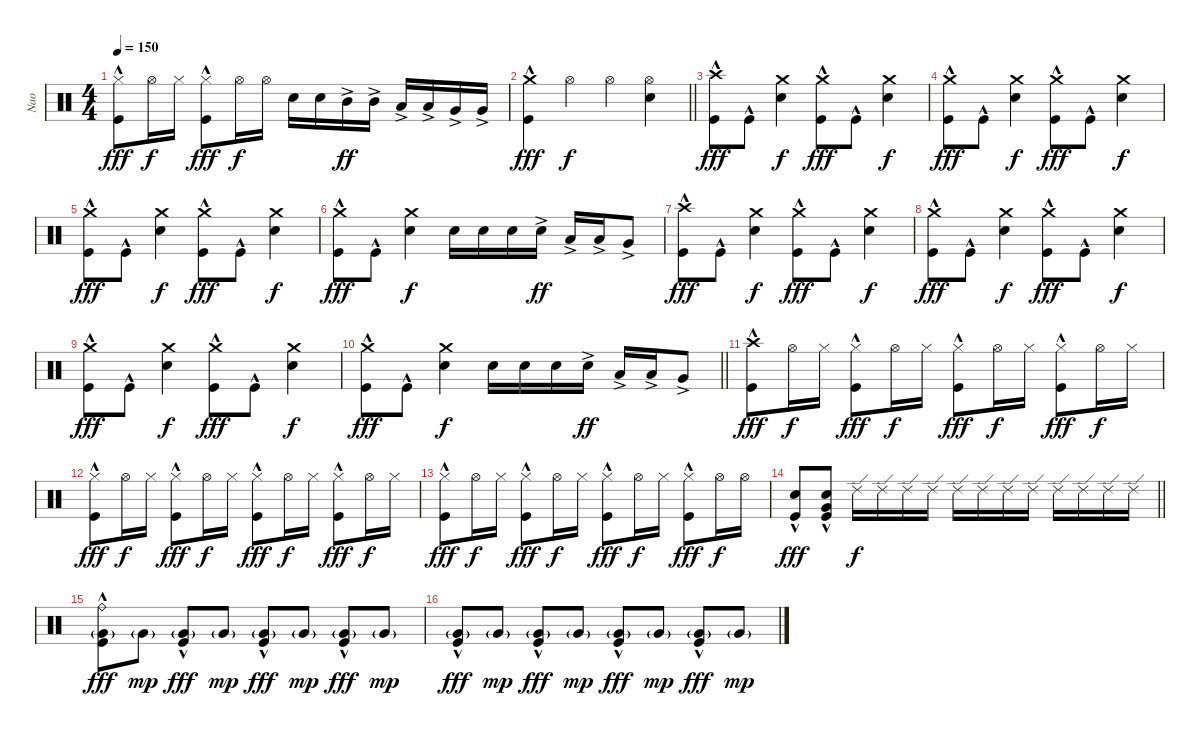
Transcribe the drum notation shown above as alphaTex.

\track ("Nao" "Nao") {instrument percussion}
\staff {score}
\articulation defaults
\ts (4 4)
\tempo 150
\clef neutral
\ks c
("Hi-Hat (closed)" "Kick (hit)"{hac}).8{dy fff} "Hi-Hat (open)".16{dy f} "Hi-Hat (closed)".16 ("Hi-Hat (closed)" "Kick (hit)"{hac}).8{dy fff} "Hi-Hat (open)".16{dy f} "Hi-Hat (open)".16 "Electric Snare (hit)".16 "Electric Snare (hit)".16 "Mid Tom (hit)"{ac}.16{dy ff} "Mid Tom (hit)"{ac}.16 "Low Tom (hit)"{ac}.16 "Low Tom (hit)"{ac}.16 "Very Low Tom (hit)"{ac}.16 "Very Low Tom (hit)"{ac}.16 |
\barLineRight lightlight
("Crash medium (hit)" "Kick (hit)"{hac}).4{dy fff} "Hi-Hat (open)".4{dy f} "Hi-Hat (open)".4 ("Hi-Hat (open)" "Electric Snare (hit)").4 |
\section ("" "")
("Crash high (hit)" "Kick (hit)"{hac}).8{dy fff} "Kick (hit)"{hac}.8 ("Crash medium (hit)" "Electric Snare (hit)").4{dy f} ("Crash medium (hit)" "Kick (hit)"{hac}).8{dy fff} "Kick (hit)"{hac}.8 ("Crash medium (hit)" "Electric Snare (hit)").4{dy f} |
("Crash medium (hit)" "Kick (hit)"{hac}).8{dy fff} "Kick (hit)"{hac}.8 ("Crash medium (hit)" "Electric Snare (hit)").4{dy f} ("Crash medium (hit)" "Kick (hit)"{hac}).8{dy fff} "Kick (hit)"{hac}.8 ("Crash medium (hit)" "Electric Snare (hit)").4{dy f} |
("Crash medium (hit)" "Kick (hit)"{hac}).8{dy fff} "Kick (hit)"{hac}.8 ("Crash medium (hit)" "Electric Snare (hit)").4{dy f} ("Crash medium (hit)" "Kick (hit)"{hac}).8{dy fff} "Kick (hit)"{hac}.8 ("Crash medium (hit)" "Electric Snare (hit)").4{dy f} |
("Crash medium (hit)" "Kick (hit)"{hac}).8{dy fff} "Kick (hit)"{hac}.8 ("Crash medium (hit)" "Electric Snare (hit)").4{dy f} "Electric Snare (hit)".16 "Electric Snare (hit)".16 "Electric Snare (hit)".16 "Electric Snare (hit)"{ac}.16{dy ff} "Low Tom (hit)"{ac}.16 "Low Tom (hit)"{ac}.16 "Very Low Tom (hit)"{ac}.8 |
("Crash high (hit)" "Kick (hit)"{hac}).8{dy fff} "Kick (hit)"{hac}.8 ("Crash medium (hit)" "Electric Snare (hit)").4{dy f} ("Crash medium (hit)" "Kick (hit)"{hac}).8{dy fff} "Kick (hit)"{hac}.8 ("Crash medium (hit)" "Electric Snare (hit)").4{dy f} |
("Crash medium (hit)" "Kick (hit)"{hac}).8{dy fff} "Kick (hit)"{hac}.8 ("Crash medium (hit)" "Electric Snare (hit)").4{dy f} ("Crash medium (hit)" "Kick (hit)"{hac}).8{dy fff} "Kick (hit)"{hac}.8 ("Crash medium (hit)" "Electric Snare (hit)").4{dy f} |
("Crash medium (hit)" "Kick (hit)"{hac}).8{dy fff} "Kick (hit)"{hac}.8 ("Crash medium (hit)" "Electric Snare (hit)").4{dy f} ("Crash medium (hit)" "Kick (hit)"{hac}).8{dy fff} "Kick (hit)"{hac}.8 ("Crash medium (hit)" "Electric Snare (hit)").4{dy f} |
\barLineRight lightlight
("Crash medium (hit)" "Kick (hit)"{hac}).8{dy fff} "Kick (hit)"{hac}.8 ("Crash medium (hit)" "Electric Snare (hit)").4{dy f} "Electric Snare (hit)".16 "Electric Snare (hit)".16 "Electric Snare (hit)".16 "Electric Snare (hit)"{ac}.16{dy ff} "Low Tom (hit)"{ac}.16 "Low Tom (hit)"{ac}.16 "Very Low Tom (hit)"{ac}.8 |
\section ("" "")
("Crash high (hit)" "Kick (hit)"{hac}).8{dy fff} "Hi-Hat (open)".16{dy f} "Hi-Hat (closed)".16 ("Hi-Hat (closed)" "Kick (hit)"{hac}).8{dy fff} "Hi-Hat (open)".16{dy f} "Hi-Hat (closed)".16 ("Hi-Hat (closed)" "Kick (hit)"{hac}).8{dy fff} "Hi-Hat (open)".16{dy f} "Hi-Hat (closed)".16 ("Hi-Hat (closed)" "Kick (hit)"{hac}).8{dy fff} "Hi-Hat (open)".16{dy f} "Hi-Hat (closed)".16 |
("Hi-Hat (closed)" "Kick (hit)"{hac}).8{dy fff} "Hi-Hat (open)".16{dy f} "Hi-Hat (closed)".16 ("Hi-Hat (closed)" "Kick (hit)"{hac}).8{dy fff} "Hi-Hat (open)".16{dy f} "Hi-Hat (closed)".16 ("Hi-Hat (closed)" "Kick (hit)"{hac}).8{dy fff} "Hi-Hat (open)".16{dy f} "Hi-Hat (closed)".16 ("Hi-Hat (closed)" "Kick (hit)"{hac}).8{dy fff} "Hi-Hat (open)".16{dy f} "Hi-Hat (closed)".16 |
("Hi-Hat (closed)" "Kick (hit)"{hac}).8{dy fff} "Hi-Hat (open)".16{dy f} "Hi-Hat (closed)".16 ("Hi-Hat (closed)" "Kick (hit)"{hac}).8{dy fff} "Hi-Hat (open)".16{dy f} "Hi-Hat (closed)".16 ("Hi-Hat (closed)" "Kick (hit)"{hac}).8{dy fff} "Hi-Hat (open)".16{dy f} "Hi-Hat (closed)".16 ("Hi-Hat (closed)" "Kick (hit)"{hac}).8{dy fff} "Hi-Hat (open)".16{dy f} "Hi-Hat (open)".16 |
\barLineRight lightlight
("Electric Snare (hit)" "Kick (hit)"{hac}).8{dy fff} ("Electric Snare (hit)" "Very Low Tom (hit)" "Kick (hit)"{hac}).8 "Ride (edge) 2".16{dy f} "Ride (edge) 2".16 "Ride (edge) 2".16 "Ride (edge) 2".16 "Ride (edge) 2".16 "Ride (edge) 2".16 "Ride (edge) 2".16 "Ride (edge) 2".16 "Ride (edge) 2".16 "Ride (edge) 2".16 "Ride (edge) 2".16 "Ride (edge) 2".16 |
\section ("" "")
("Ride (bell)" "Very Low Tom (hit)"{g} "Kick (hit)"{hac}).8{dy fff} "Very Low Tom (hit)"{g}.8{dy mp} ("Very Low Tom (hit)"{g} "Kick (hit)"{hac}).8{dy fff} "Very Low Tom (hit)"{g}.8{dy mp} ("Very Low Tom (hit)"{g} "Kick (hit)"{hac}).8{dy fff} "Very Low Tom (hit)"{g}.8{dy mp} ("Very Low Tom (hit)"{g} "Kick (hit)"{hac}).8{dy fff} "Very Low Tom (hit)"{g}.8{dy mp} |
("Very Low Tom (hit)"{g} "Kick (hit)"{hac}).8{dy fff} "Very Low Tom (hit)"{g}.8{dy mp} ("Very Low Tom (hit)"{g} "Kick (hit)"{hac}).8{dy fff} "Very Low Tom (hit)"{g}.8{dy mp} ("Very Low Tom (hit)"{g} "Kick (hit)"{hac}).8{dy fff} "Very Low Tom (hit)"{g}.8{dy mp} ("Very Low Tom (hit)"{g} "Kick (hit)"{hac}).8{dy fff} "Very Low Tom (hit)"{g}.8{dy mp}
